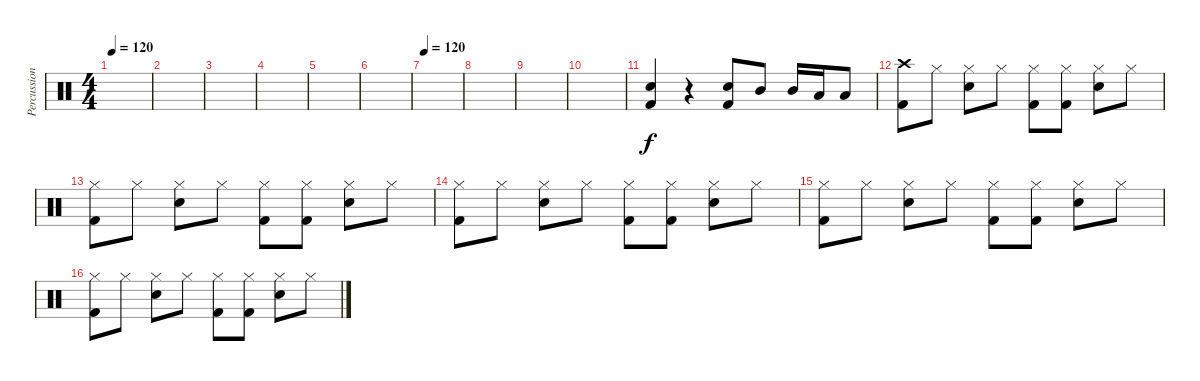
\track ("Percussion" "Percussion") {instrument percussion}
\staff {score}
\articulation defaults
\ts (4 4)
\tempo 120
\tempo 105
\tempo 120
\clef neutral
\ks c
|
|
|
|
|
|
\tempo 120
|
|
|
|
("Electric Snare (hit)" "Kick (hit) 2").4 r.4 ("Electric Snare (hit)" "Kick (hit) 2").8 "Mid Tom (hit)".8 "Mid Tom (hit)".16 "Low Tom (hit)".16 "Low Tom (hit)".8 |
("Crash high (hit)" "Kick (hit) 2").8 "Hi-Hat (closed)".8 ("Hi-Hat (closed)" "Electric Snare (hit)").8 "Hi-Hat (closed)".8 ("Hi-Hat (closed)" "Kick (hit) 2").8 ("Hi-Hat (closed)" "Kick (hit) 2").8 ("Hi-Hat (closed)" "Electric Snare (hit)").8 "Hi-Hat (closed)".8 |
("Hi-Hat (closed)" "Kick (hit) 2").8 "Hi-Hat (closed)".8 ("Hi-Hat (closed)" "Electric Snare (hit)").8 "Hi-Hat (closed)".8 ("Hi-Hat (closed)" "Kick (hit) 2").8 ("Hi-Hat (closed)" "Kick (hit) 2").8 ("Hi-Hat (closed)" "Electric Snare (hit)").8 "Hi-Hat (closed)".8 |
("Hi-Hat (closed)" "Kick (hit) 2").8 "Hi-Hat (closed)".8 ("Hi-Hat (closed)" "Electric Snare (hit)").8 "Hi-Hat (closed)".8 ("Hi-Hat (closed)" "Kick (hit) 2").8 ("Hi-Hat (closed)" "Kick (hit) 2").8 ("Hi-Hat (closed)" "Electric Snare (hit)").8 "Hi-Hat (closed)".8 |
("Hi-Hat (closed)" "Kick (hit) 2").8 "Hi-Hat (closed)".8 ("Hi-Hat (closed)" "Electric Snare (hit)").8 "Hi-Hat (closed)".8 ("Hi-Hat (closed)" "Kick (hit) 2").8 ("Hi-Hat (closed)" "Kick (hit) 2").8 ("Hi-Hat (closed)" "Electric Snare (hit)").8 "Hi-Hat (closed)".8 |
("Hi-Hat (closed)" "Kick (hit) 2").8 "Hi-Hat (closed)".8 ("Hi-Hat (closed)" "Electric Snare (hit)").8 "Hi-Hat (closed)".8 ("Hi-Hat (closed)" "Kick (hit) 2").8 ("Hi-Hat (closed)" "Kick (hit) 2").8 ("Hi-Hat (closed)" "Electric Snare (hit)").8 "Hi-Hat (closed)".8
